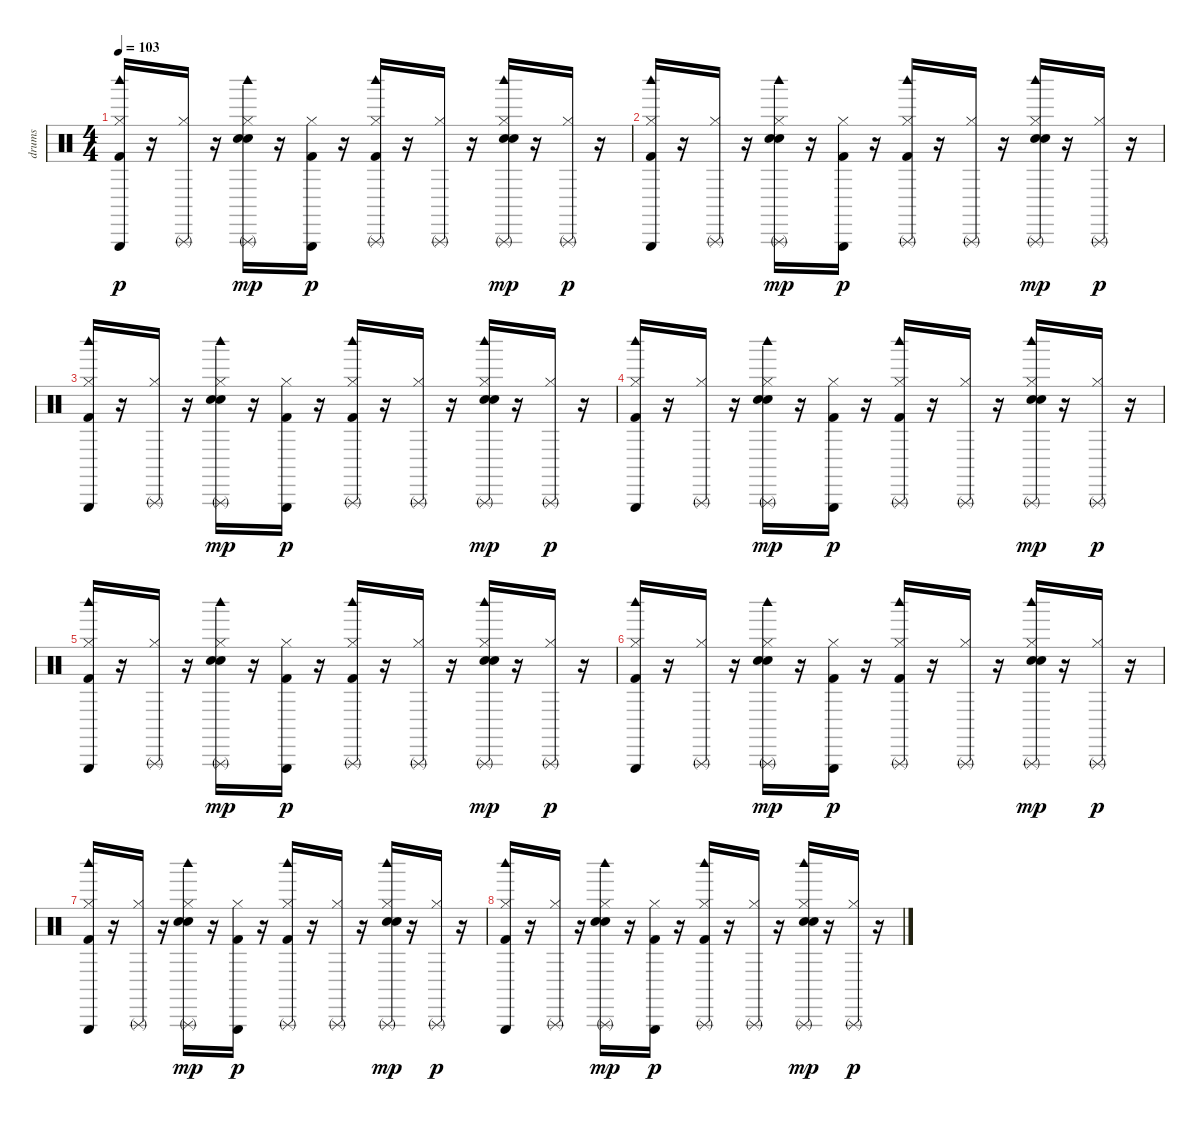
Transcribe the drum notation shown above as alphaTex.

\track ("drums" "drums") {instrument percussion}
\staff {score}
\articulation defaults
\ts (4 4)
\tempo 103
\clef neutral
\ks c
("Hi-Hat (closed)" "Triangle (hit)" "Woodblock high (hit)" "Kick (hit) 2").16{dy p} r.16 ("Hi-Hat (closed)" "Triangle (rnute)").16 r.16 ("Hi-Hat (closed)" "Triangle (rnute)" "Electric Snare (hit)" "Snare (hit) 2" "Woodblock high (hit)").16{dy mp} r.16 ("Hi-Hat (closed)" "Triangle (hit)" "Kick (hit) 2").16{dy p} r.16 ("Hi-Hat (closed)" "Triangle (rnute)" "Woodblock high (hit)" "Kick (hit) 2").16 r.16 ("Hi-Hat (closed)" "Triangle (rnute)").16 r.16 ("Hi-Hat (closed)" "Triangle (rnute)" "Electric Snare (hit)" "Snare (hit) 2" "Woodblock high (hit)").16{dy mp} r.16 ("Hi-Hat (closed)" "Triangle (rnute)").16{dy p} r.16 |
("Hi-Hat (closed)" "Triangle (hit)" "Woodblock high (hit)" "Kick (hit) 2").16 r.16 ("Hi-Hat (closed)" "Triangle (rnute)").16 r.16 ("Hi-Hat (closed)" "Triangle (rnute)" "Electric Snare (hit)" "Snare (hit) 2" "Woodblock high (hit)").16{dy mp} r.16 ("Hi-Hat (closed)" "Triangle (hit)" "Kick (hit) 2").16{dy p} r.16 ("Hi-Hat (closed)" "Triangle (rnute)" "Woodblock high (hit)" "Kick (hit) 2").16 r.16 ("Hi-Hat (closed)" "Triangle (rnute)").16 r.16 ("Hi-Hat (closed)" "Triangle (rnute)" "Electric Snare (hit)" "Snare (hit) 2" "Woodblock high (hit)").16{dy mp} r.16 ("Hi-Hat (closed)" "Triangle (rnute)").16{dy p} r.16 |
("Hi-Hat (closed)" "Triangle (hit)" "Woodblock high (hit)" "Kick (hit) 2").16 r.16 ("Hi-Hat (closed)" "Triangle (rnute)").16 r.16 ("Hi-Hat (closed)" "Triangle (rnute)" "Electric Snare (hit)" "Snare (hit) 2" "Woodblock high (hit)").16{dy mp} r.16 ("Hi-Hat (closed)" "Triangle (hit)" "Kick (hit) 2").16{dy p} r.16 ("Hi-Hat (closed)" "Triangle (rnute)" "Woodblock high (hit)" "Kick (hit) 2").16 r.16 ("Hi-Hat (closed)" "Triangle (rnute)").16 r.16 ("Hi-Hat (closed)" "Triangle (rnute)" "Electric Snare (hit)" "Snare (hit) 2" "Woodblock high (hit)").16{dy mp} r.16 ("Hi-Hat (closed)" "Triangle (rnute)").16{dy p} r.16 |
("Hi-Hat (closed)" "Triangle (hit)" "Woodblock high (hit)" "Kick (hit) 2").16 r.16 ("Hi-Hat (closed)" "Triangle (rnute)").16 r.16 ("Hi-Hat (closed)" "Triangle (rnute)" "Electric Snare (hit)" "Snare (hit) 2" "Woodblock high (hit)").16{dy mp} r.16 ("Hi-Hat (closed)" "Triangle (hit)" "Kick (hit) 2").16{dy p} r.16 ("Hi-Hat (closed)" "Triangle (rnute)" "Woodblock high (hit)" "Kick (hit) 2").16 r.16 ("Hi-Hat (closed)" "Triangle (rnute)").16 r.16 ("Hi-Hat (closed)" "Triangle (rnute)" "Electric Snare (hit)" "Snare (hit) 2" "Woodblock high (hit)").16{dy mp} r.16 ("Hi-Hat (closed)" "Triangle (rnute)").16{dy p} r.16 |
("Hi-Hat (closed)" "Triangle (hit)" "Woodblock high (hit)" "Kick (hit) 2").16 r.16 ("Hi-Hat (closed)" "Triangle (rnute)").16 r.16 ("Hi-Hat (closed)" "Triangle (rnute)" "Electric Snare (hit)" "Snare (hit) 2" "Woodblock high (hit)").16{dy mp} r.16 ("Hi-Hat (closed)" "Triangle (hit)" "Kick (hit) 2").16{dy p} r.16 ("Hi-Hat (closed)" "Triangle (rnute)" "Woodblock high (hit)" "Kick (hit) 2").16 r.16 ("Hi-Hat (closed)" "Triangle (rnute)").16 r.16 ("Hi-Hat (closed)" "Triangle (rnute)" "Electric Snare (hit)" "Snare (hit) 2" "Woodblock high (hit)").16{dy mp} r.16 ("Hi-Hat (closed)" "Triangle (rnute)").16{dy p} r.16 |
("Hi-Hat (closed)" "Triangle (hit)" "Woodblock high (hit)" "Kick (hit) 2").16 r.16 ("Hi-Hat (closed)" "Triangle (rnute)").16 r.16 ("Hi-Hat (closed)" "Triangle (rnute)" "Electric Snare (hit)" "Snare (hit) 2" "Woodblock high (hit)").16{dy mp} r.16 ("Hi-Hat (closed)" "Triangle (hit)" "Kick (hit) 2").16{dy p} r.16 ("Hi-Hat (closed)" "Triangle (rnute)" "Woodblock high (hit)" "Kick (hit) 2").16 r.16 ("Hi-Hat (closed)" "Triangle (rnute)").16 r.16 ("Hi-Hat (closed)" "Triangle (rnute)" "Electric Snare (hit)" "Snare (hit) 2" "Woodblock high (hit)").16{dy mp} r.16 ("Hi-Hat (closed)" "Triangle (rnute)").16{dy p} r.16 |
("Hi-Hat (closed)" "Triangle (hit)" "Woodblock high (hit)" "Kick (hit) 2").16 r.16 ("Hi-Hat (closed)" "Triangle (rnute)").16 r.16 ("Hi-Hat (closed)" "Triangle (rnute)" "Electric Snare (hit)" "Snare (hit) 2" "Woodblock high (hit)").16{dy mp} r.16 ("Hi-Hat (closed)" "Triangle (hit)" "Kick (hit) 2").16{dy p} r.16 ("Hi-Hat (closed)" "Triangle (rnute)" "Woodblock high (hit)" "Kick (hit) 2").16 r.16 ("Hi-Hat (closed)" "Triangle (rnute)").16 r.16 ("Hi-Hat (closed)" "Triangle (rnute)" "Electric Snare (hit)" "Snare (hit) 2" "Woodblock high (hit)").16{dy mp} r.16 ("Hi-Hat (closed)" "Triangle (rnute)").16{dy p} r.16 |
("Hi-Hat (closed)" "Triangle (hit)" "Woodblock high (hit)" "Kick (hit) 2").16 r.16 ("Hi-Hat (closed)" "Triangle (rnute)").16 r.16 ("Hi-Hat (closed)" "Triangle (rnute)" "Electric Snare (hit)" "Snare (hit) 2" "Woodblock high (hit)").16{dy mp} r.16 ("Hi-Hat (closed)" "Triangle (hit)" "Kick (hit) 2").16{dy p} r.16 ("Hi-Hat (closed)" "Triangle (rnute)" "Woodblock high (hit)" "Kick (hit) 2").16 r.16 ("Hi-Hat (closed)" "Triangle (rnute)").16 r.16 ("Hi-Hat (closed)" "Triangle (rnute)" "Electric Snare (hit)" "Snare (hit) 2" "Woodblock high (hit)").16{dy mp} r.16 ("Hi-Hat (closed)" "Triangle (rnute)").16{dy p} r.16
